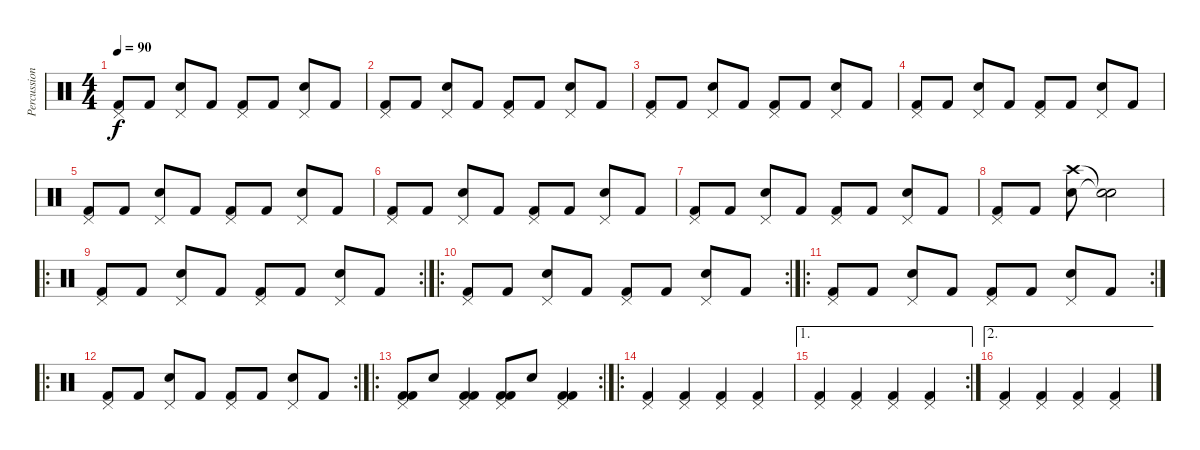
\track ("Percussions" "Percussion") {instrument percussion}
\staff {score}
\articulation defaults
\ts (4 4)
\tempo 90
\clef neutral
\ks c
("Pedal Hi-Hat (hit)" "Kick (hit) 2").8{dy f} "Kick (hit) 2".8 ("Pedal Hi-Hat (hit)" "Snare (hit) 2").8 "Kick (hit) 2".8 ("Pedal Hi-Hat (hit)" "Kick (hit) 2").8 "Kick (hit) 2".8 ("Pedal Hi-Hat (hit)" "Snare (hit) 2").8 "Kick (hit) 2".8 |
("Pedal Hi-Hat (hit)" "Kick (hit) 2").8 "Kick (hit) 2".8 ("Pedal Hi-Hat (hit)" "Snare (hit) 2").8 "Kick (hit) 2".8 ("Pedal Hi-Hat (hit)" "Kick (hit) 2").8 "Kick (hit) 2".8 ("Pedal Hi-Hat (hit)" "Snare (hit) 2").8 "Kick (hit) 2".8 |
("Pedal Hi-Hat (hit)" "Kick (hit) 2").8 "Kick (hit) 2".8 ("Pedal Hi-Hat (hit)" "Snare (hit) 2").8 "Kick (hit) 2".8 ("Pedal Hi-Hat (hit)" "Kick (hit) 2").8 "Kick (hit) 2".8 ("Pedal Hi-Hat (hit)" "Snare (hit) 2").8 "Kick (hit) 2".8 |
("Pedal Hi-Hat (hit)" "Kick (hit) 2").8 "Kick (hit) 2".8 ("Pedal Hi-Hat (hit)" "Snare (hit) 2").8 "Kick (hit) 2".8 ("Pedal Hi-Hat (hit)" "Kick (hit) 2").8 "Kick (hit) 2".8 ("Pedal Hi-Hat (hit)" "Snare (hit) 2").8 "Kick (hit) 2".8 |
("Pedal Hi-Hat (hit)" "Kick (hit) 2").8 "Kick (hit) 2".8 ("Pedal Hi-Hat (hit)" "Snare (hit) 2").8 "Kick (hit) 2".8 ("Pedal Hi-Hat (hit)" "Kick (hit) 2").8 "Kick (hit) 2".8 ("Pedal Hi-Hat (hit)" "Snare (hit) 2").8 "Kick (hit) 2".8 |
("Pedal Hi-Hat (hit)" "Kick (hit) 2").8 "Kick (hit) 2".8 ("Pedal Hi-Hat (hit)" "Snare (hit) 2").8 "Kick (hit) 2".8 ("Pedal Hi-Hat (hit)" "Kick (hit) 2").8 "Kick (hit) 2".8 ("Pedal Hi-Hat (hit)" "Snare (hit) 2").8 "Kick (hit) 2".8 |
("Pedal Hi-Hat (hit)" "Kick (hit) 2").8 "Kick (hit) 2".8 ("Pedal Hi-Hat (hit)" "Snare (hit) 2").8 "Kick (hit) 2".8 ("Pedal Hi-Hat (hit)" "Kick (hit) 2").8 "Kick (hit) 2".8 ("Pedal Hi-Hat (hit)" "Snare (hit) 2").8 "Kick (hit) 2".8 |
("Pedal Hi-Hat (hit)" "Kick (hit) 2").8 "Kick (hit) 2".8 ("Crash high (hit)" "Snare (hit) 2").8 ("Snare (hit)"{t} "Snare (hit)"{t}).2 |
\ro
\rc 2
("Pedal Hi-Hat (hit)" "Kick (hit) 2").8 "Kick (hit) 2".8 ("Pedal Hi-Hat (hit)" "Snare (hit) 2").8 "Kick (hit) 2".8 ("Pedal Hi-Hat (hit)" "Kick (hit) 2").8 "Kick (hit) 2".8 ("Pedal Hi-Hat (hit)" "Snare (hit) 2").8 "Kick (hit) 2".8 |
\ro
\rc 2
("Pedal Hi-Hat (hit)" "Kick (hit) 2").8 "Kick (hit) 2".8 ("Pedal Hi-Hat (hit)" "Snare (hit) 2").8 "Kick (hit) 2".8 ("Pedal Hi-Hat (hit)" "Kick (hit) 2").8 "Kick (hit) 2".8 ("Pedal Hi-Hat (hit)" "Snare (hit) 2").8 "Kick (hit) 2".8 |
\ro
\rc 2
("Pedal Hi-Hat (hit)" "Kick (hit) 2").8 "Kick (hit) 2".8 ("Pedal Hi-Hat (hit)" "Snare (hit) 2").8 "Kick (hit) 2".8 ("Pedal Hi-Hat (hit)" "Kick (hit) 2").8 "Kick (hit) 2".8 ("Pedal Hi-Hat (hit)" "Snare (hit) 2").8 "Kick (hit) 2".8 |
\ro
\rc 2
("Pedal Hi-Hat (hit)" "Kick (hit) 2").8 "Kick (hit) 2".8 ("Pedal Hi-Hat (hit)" "Snare (hit) 2").8 "Kick (hit) 2".8 ("Pedal Hi-Hat (hit)" "Kick (hit) 2").8 "Kick (hit) 2".8 ("Pedal Hi-Hat (hit)" "Snare (hit) 2").8 "Kick (hit) 2".8 |
\ro
\rc 2
("Pedal Hi-Hat (hit)" "Kick (hit) 2" "Kick (hit) 2").8 "Snare (hit) 2".8 ("Pedal Hi-Hat (hit)" "Kick (hit) 2" "Kick (hit) 2").4 ("Pedal Hi-Hat (hit)" "Kick (hit) 2" "Kick (hit) 2").8 "Snare (hit) 2".8 ("Pedal Hi-Hat (hit)" "Kick (hit) 2" "Kick (hit) 2").4 |
\ro
("Pedal Hi-Hat (hit)" "Kick (hit) 2").4 ("Pedal Hi-Hat (hit)" "Kick (hit) 2").4 ("Pedal Hi-Hat (hit)" "Kick (hit) 2").4 ("Pedal Hi-Hat (hit)" "Kick (hit) 2").4 |
\ae 1
\rc 2
("Pedal Hi-Hat (hit)" "Kick (hit) 2").4 ("Pedal Hi-Hat (hit)" "Kick (hit) 2").4 ("Pedal Hi-Hat (hit)" "Kick (hit) 2").4 ("Pedal Hi-Hat (hit)" "Kick (hit) 2").4 |
\ae 2
("Pedal Hi-Hat (hit)" "Kick (hit) 2").4 ("Pedal Hi-Hat (hit)" "Kick (hit) 2").4 ("Pedal Hi-Hat (hit)" "Kick (hit) 2").4 ("Pedal Hi-Hat (hit)" "Kick (hit) 2").4
